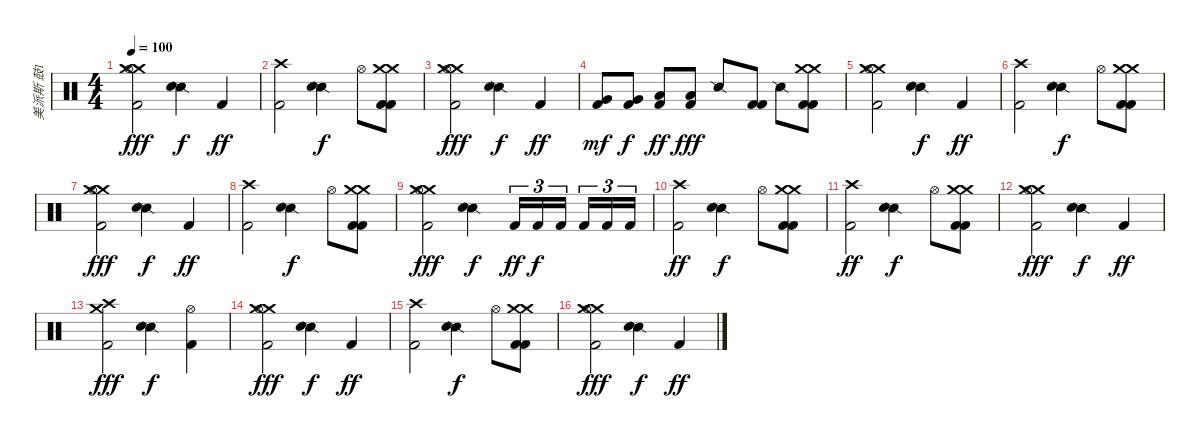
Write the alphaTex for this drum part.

\track ("美派斯 鼓1" "美派斯 鼓1") {instrument percussion}
\staff {score}
\articulation defaults
\ts (4 4)
\tempo 100
\clef neutral
\ks c
("Crash medium (hit)" "Crash medium (hit)" "Kick (hit) 2" "Hi-Hat (open)").2{dy fff} ("Snare (side stick) 2" "Snare (hit) 2").4{dy f} "Kick (hit) 2".4{dy ff} |
("Crash high (hit)" "Kick (hit) 2").2 ("Snare (side stick) 2" "Snare (hit) 2").4{dy f} "Hi-Hat (open)".8 ("Crash medium (hit)" "Crash medium (hit)" "Kick (hit) 2" "Kick (hit) 2").8 |
("Crash medium (hit)" "Crash medium (hit)" "Kick (hit) 2" "Hi-Hat (open)").2{dy fff} ("Snare (side stick) 2" "Snare (hit) 2").4{dy f} "Kick (hit) 2".4{dy ff} |
("Very Low Tom (hit)" "Kick (hit) 2").8{dy mf} ("Very Low Tom (hit)" "Kick (hit) 2").8{dy f} ("Low Tom (hit)" "Kick (hit) 2").8{dy ff} ("Low Tom (hit)" "Kick (hit) 2").8{dy fff} "Snare (side stick) 2".8 ("Kick (hit) 2" "Kick (hit) 2").8 "Snare (side stick) 2".8 ("Crash medium (hit)" "Crash medium (hit)" "Kick (hit) 2" "Kick (hit) 2").8 |
("Crash medium (hit)" "Crash medium (hit)" "Kick (hit) 2" "Hi-Hat (open)").2 ("Snare (side stick) 2" "Snare (hit) 2").4{dy f} "Kick (hit) 2".4{dy ff} |
("Crash high (hit)" "Kick (hit) 2").2 ("Snare (side stick) 2" "Snare (hit) 2").4{dy f} "Hi-Hat (open)".8 ("Crash medium (hit)" "Crash medium (hit)" "Kick (hit) 2" "Kick (hit) 2").8 |
("Crash medium (hit)" "Crash medium (hit)" "Kick (hit) 2" "Hi-Hat (open)").2{dy fff} ("Snare (side stick) 2" "Snare (hit) 2").4{dy f} "Kick (hit) 2".4{dy ff} |
("Crash high (hit)" "Kick (hit) 2").2 ("Snare (side stick) 2" "Snare (hit) 2").4{dy f} "Hi-Hat (open)".8 ("Crash medium (hit)" "Crash medium (hit)" "Kick (hit) 2" "Kick (hit) 2").8 |
("Crash medium (hit)" "Crash medium (hit)" "Kick (hit) 2" "Hi-Hat (open)").2{dy fff} ("Snare (side stick) 2" "Snare (hit) 2").4{dy f} "Kick (hit) 2".16{tu (3 2) dy ff} "Kick (hit) 2".16{tu (3 2) dy f} "Kick (hit) 2".16{tu (3 2)} "Kick (hit) 2".16{tu (3 2)} "Kick (hit) 2".16{tu (3 2)} "Kick (hit) 2".16{tu (3 2)} |
("Crash high (hit)" "Kick (hit) 2").2{dy ff} ("Snare (side stick) 2" "Snare (hit) 2").4{dy f} "Hi-Hat (open)".8 ("Crash medium (hit)" "Crash medium (hit)" "Kick (hit) 2" "Kick (hit) 2").8 |
("Crash high (hit)" "Kick (hit) 2").2{dy ff} ("Snare (side stick) 2" "Snare (hit) 2").4{dy f} "Hi-Hat (open)".8 ("Crash medium (hit)" "Crash medium (hit)" "Kick (hit) 2" "Kick (hit) 2").8 |
("Crash medium (hit)" "Crash medium (hit)" "Kick (hit) 2" "Hi-Hat (open)").2{dy fff} ("Snare (side stick) 2" "Snare (hit) 2").4{dy f} "Kick (hit) 2".4{dy ff} |
("Crash medium (hit)" "Crash high (hit)" "Kick (hit) 2").2{dy fff} ("Snare (side stick) 2" "Snare (hit) 2").4{dy f} ("Kick (hit) 2" "Hi-Hat (open)").4 |
("Crash medium (hit)" "Crash medium (hit)" "Kick (hit) 2" "Hi-Hat (open)").2{dy fff} ("Snare (side stick) 2" "Snare (hit) 2").4{dy f} "Kick (hit) 2".4{dy ff} |
("Crash high (hit)" "Kick (hit) 2").2 ("Snare (side stick) 2" "Snare (hit) 2").4{dy f} "Hi-Hat (open)".8 ("Crash medium (hit)" "Crash medium (hit)" "Kick (hit) 2" "Kick (hit) 2").8 |
("Crash medium (hit)" "Crash medium (hit)" "Kick (hit) 2" "Hi-Hat (open)").2{dy fff} ("Snare (side stick) 2" "Snare (hit) 2").4{dy f} "Kick (hit) 2".4{dy ff}
